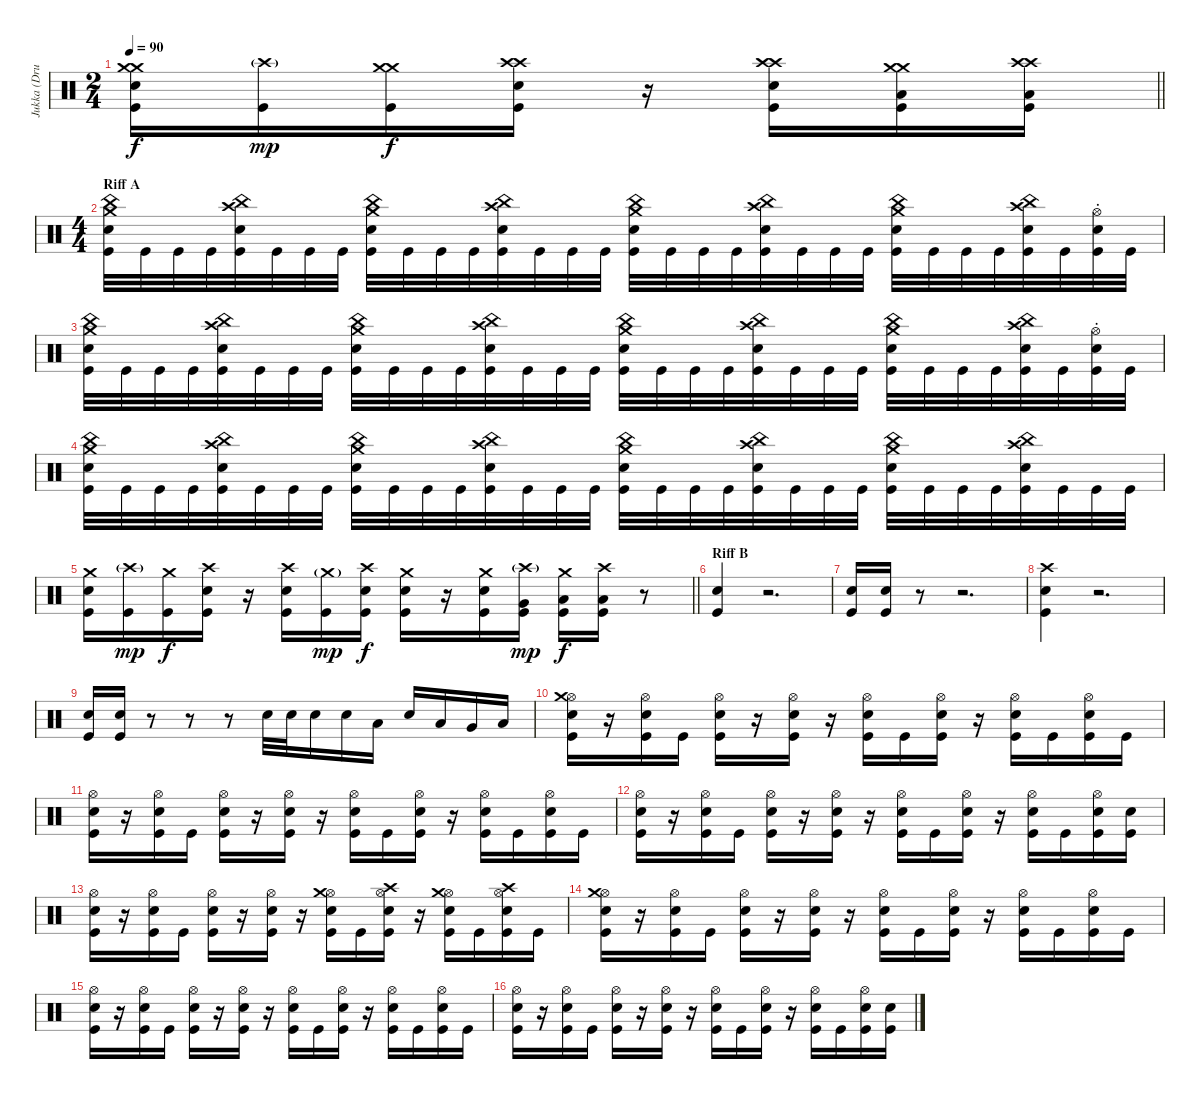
\track ("Jukka (Drums)" "Jukka (Dru") {instrument percussion}
\staff {score}
\articulation defaults
\ts (2 4)
\tempo 90
\clef neutral
\barLineRight lightlight
\ks c
("Crash medium (hit)" "Crash medium (hit)" "Snare (hit) 2" "Kick (hit)").16{dy f} ("Crash high (hit)"{g} "Kick (hit)").16{dy mp} ("Crash medium (hit)" "Crash medium (hit)" "Kick (hit)").16{dy f} ("Crash high (hit)" "Crash high (hit)" "Snare (hit) 2" "Kick (hit)").16 r.16 ("Crash high (hit)" "Crash high (hit)" "Snare (hit) 2" "Kick (hit)").16 ("Crash medium (hit)" "Crash medium (hit)" "Low Floor Tom (hit)" "Kick (hit)").16 ("Crash high (hit)" "Crash high (hit)" "Low Floor Tom (hit)" "Kick (hit)").16 |
\ts (4 4)
\section ("" "Riff A")
("China (hit)" "Crash medium (hit)" "Snare (hit) 2" "Kick (hit)").32 "Kick (hit)".32 "Kick (hit)".32 "Kick (hit)".32 ("China (hit)" "Crash high (hit)" "Snare (hit) 2" "Kick (hit)").32 "Kick (hit)".32 "Kick (hit)".32 "Kick (hit)".32 ("China (hit)" "Crash medium (hit)" "Snare (hit) 2" "Kick (hit)").32 "Kick (hit)".32 "Kick (hit)".32 "Kick (hit)".32 ("China (hit)" "Crash high (hit)" "Snare (hit) 2" "Kick (hit)").32 "Kick (hit)".32 "Kick (hit)".32 "Kick (hit)".32 ("China (hit)" "Crash medium (hit)" "Snare (hit) 2" "Kick (hit)").32 "Kick (hit)".32 "Kick (hit)".32 "Kick (hit)".32 ("China (hit)" "Crash high (hit)" "Snare (hit) 2" "Kick (hit)").32 "Kick (hit)".32 "Kick (hit)".32 "Kick (hit)".32 ("China (hit)" "Crash medium (hit)" "Snare (hit) 2" "Kick (hit)").32 "Kick (hit)".32 "Kick (hit)".32 "Kick (hit)".32 ("China (hit)" "Crash high (hit)" "Snare (hit) 2" "Kick (hit)").32 "Kick (hit)".32 ("Hi-Hat (open)"{st} "Snare (hit) 2" "Kick (hit)").32 "Kick (hit)".32 |
("China (hit)" "Crash medium (hit)" "Snare (hit) 2" "Kick (hit)").32 "Kick (hit)".32 "Kick (hit)".32 "Kick (hit)".32 ("China (hit)" "Crash high (hit)" "Snare (hit) 2" "Kick (hit)").32 "Kick (hit)".32 "Kick (hit)".32 "Kick (hit)".32 ("China (hit)" "Crash medium (hit)" "Snare (hit) 2" "Kick (hit)").32 "Kick (hit)".32 "Kick (hit)".32 "Kick (hit)".32 ("China (hit)" "Crash high (hit)" "Snare (hit) 2" "Kick (hit)").32 "Kick (hit)".32 "Kick (hit)".32 "Kick (hit)".32 ("China (hit)" "Crash medium (hit)" "Snare (hit) 2" "Kick (hit)").32 "Kick (hit)".32 "Kick (hit)".32 "Kick (hit)".32 ("China (hit)" "Crash high (hit)" "Snare (hit) 2" "Kick (hit)").32 "Kick (hit)".32 "Kick (hit)".32 "Kick (hit)".32 ("China (hit)" "Crash medium (hit)" "Snare (hit) 2" "Kick (hit)").32 "Kick (hit)".32 "Kick (hit)".32 "Kick (hit)".32 ("China (hit)" "Crash high (hit)" "Snare (hit) 2" "Kick (hit)").32 "Kick (hit)".32 ("Hi-Hat (open)"{st} "Snare (hit) 2" "Kick (hit)").32 "Kick (hit)".32 |
("China (hit)" "Crash medium (hit)" "Snare (hit) 2" "Kick (hit)").32 "Kick (hit)".32 "Kick (hit)".32 "Kick (hit)".32 ("China (hit)" "Crash high (hit)" "Snare (hit) 2" "Kick (hit)").32 "Kick (hit)".32 "Kick (hit)".32 "Kick (hit)".32 ("China (hit)" "Crash medium (hit)" "Snare (hit) 2" "Kick (hit)").32 "Kick (hit)".32 "Kick (hit)".32 "Kick (hit)".32 ("China (hit)" "Crash high (hit)" "Snare (hit) 2" "Kick (hit)").32 "Kick (hit)".32 "Kick (hit)".32 "Kick (hit)".32 ("China (hit)" "Crash medium (hit)" "Snare (hit) 2" "Kick (hit)").32 "Kick (hit)".32 "Kick (hit)".32 "Kick (hit)".32 ("China (hit)" "Crash high (hit)" "Snare (hit) 2" "Kick (hit)").32 "Kick (hit)".32 "Kick (hit)".32 "Kick (hit)".32 ("China (hit)" "Crash medium (hit)" "Snare (hit) 2" "Kick (hit)").32 "Kick (hit)".32 "Kick (hit)".32 "Kick (hit)".32 ("China (hit)" "Crash high (hit)" "Snare (hit) 2" "Kick (hit)").32 "Kick (hit)".32 "Kick (hit)".32 "Kick (hit)".32 |
\barLineRight lightlight
("Crash medium (hit)" "Snare (hit) 2" "Kick (hit)").16 ("Crash high (hit)"{g} "Kick (hit)").16{dy mp} ("Crash medium (hit)" "Kick (hit)").16{dy f} ("Crash high (hit)" "Snare (hit) 2" "Kick (hit)").16 r.16 ("Crash high (hit)" "Snare (hit) 2" "Kick (hit)").16 ("Crash medium (hit)"{g} "Kick (hit)").16{dy mp} ("Crash high (hit)" "Snare (hit) 2" "Kick (hit)").16{dy f} ("Crash medium (hit)" "Snare (hit) 2" "Kick (hit)").16 r.16 ("Crash medium (hit)" "Snare (hit) 2" "Kick (hit)").16 ("Crash high (hit)"{g} "Very Low Tom (hit)" "Kick (hit)").16{dy mp} ("Crash medium (hit)" "Low Floor Tom (hit)" "Kick (hit)").16{dy f} ("Crash high (hit)" "Low Floor Tom (hit)" "Kick (hit)").16 r.8 |
\section ("" "Riff B")
("Snare (hit) 2" "Kick (hit)").4 r.2{d} |
("Snare (hit) 2" "Kick (hit)").16 ("Snare (hit) 2" "Kick (hit)").16 r.8 r.2{d} |
("Crash high (hit)" "Snare (hit) 2" "Kick (hit)").4 r.2{d} |
("Snare (hit) 2" "Kick (hit)").16 ("Snare (hit) 2" "Kick (hit)").16 r.8 r.8 r.8 "Snare (hit) 2".32{volume 12} "Snare (hit) 2".32 "Snare (hit) 2".16 "Snare (hit) 2".16 "Low Tom (hit)".16 "Snare (hit) 2".16 "Low Tom (hit)".16 "Very Low Tom (hit)".16 "Low Floor Tom (hit)".16 |
("Hi-Hat (open)" "Crash medium (hit)" "Snare (hit) 2" "Kick (hit)").16 r.16 ("Hi-Hat (open)" "Snare (hit) 2" "Kick (hit)").16 "Kick (hit)".16 ("Hi-Hat (open)" "Snare (hit) 2" "Kick (hit)").16 r.16 ("Hi-Hat (open)" "Snare (hit) 2" "Kick (hit)").16 r.16 ("Hi-Hat (open)" "Snare (hit) 2" "Kick (hit)").16 "Kick (hit)".16 ("Hi-Hat (open)" "Snare (hit) 2" "Kick (hit)").16 r.16 ("Hi-Hat (open)" "Snare (hit) 2" "Kick (hit)").16 "Kick (hit)".16 ("Hi-Hat (open)" "Snare (hit) 2" "Kick (hit)").16 "Kick (hit)".16 |
("Hi-Hat (open)" "Snare (hit) 2" "Kick (hit)").16 r.16 ("Hi-Hat (open)" "Snare (hit) 2" "Kick (hit)").16 "Kick (hit)".16 ("Hi-Hat (open)" "Snare (hit) 2" "Kick (hit)").16 r.16 ("Hi-Hat (open)" "Snare (hit) 2" "Kick (hit)").16 r.16 ("Hi-Hat (open)" "Snare (hit) 2" "Kick (hit)").16 "Kick (hit)".16 ("Hi-Hat (open)" "Snare (hit) 2" "Kick (hit)").16 r.16 ("Hi-Hat (open)" "Snare (hit) 2" "Kick (hit)").16 "Kick (hit)".16 ("Hi-Hat (open)" "Snare (hit) 2" "Kick (hit)").16 "Kick (hit)".16 |
("Hi-Hat (open)" "Snare (hit) 2" "Kick (hit)").16 r.16 ("Hi-Hat (open)" "Snare (hit) 2" "Kick (hit)").16 "Kick (hit)".16 ("Hi-Hat (open)" "Snare (hit) 2" "Kick (hit)").16 r.16 ("Hi-Hat (open)" "Snare (hit) 2" "Kick (hit)").16 r.16 ("Hi-Hat (open)" "Snare (hit) 2" "Kick (hit)").16 "Kick (hit)".16 ("Hi-Hat (open)" "Snare (hit) 2" "Kick (hit)").16 r.16 ("Hi-Hat (open)" "Snare (hit) 2" "Kick (hit)").16 "Kick (hit)".16 ("Hi-Hat (open)" "Snare (hit) 2" "Kick (hit)").16 ("Snare (hit) 2" "Kick (hit)").16 |
("Hi-Hat (open)" "Snare (hit) 2" "Kick (hit)").16 r.16 ("Hi-Hat (open)" "Snare (hit) 2" "Kick (hit)").16 "Kick (hit)".16 ("Hi-Hat (open)" "Snare (hit) 2" "Kick (hit)").16 r.16 ("Hi-Hat (open)" "Snare (hit) 2" "Kick (hit)").16 r.16 ("Hi-Hat (open)" "Crash medium (hit)" "Snare (hit) 2" "Kick (hit)").16 "Kick (hit)".16 ("Hi-Hat (open)" "Crash high (hit)" "Snare (hit) 2" "Kick (hit)").16 r.16 ("Hi-Hat (open)" "Crash medium (hit)" "Snare (hit) 2" "Kick (hit)").16 "Kick (hit)".16 ("Hi-Hat (open)" "Crash high (hit)" "Snare (hit) 2" "Kick (hit)").16 "Kick (hit)".16 |
("Hi-Hat (open)" "Crash medium (hit)" "Snare (hit) 2" "Kick (hit)").16 r.16 ("Hi-Hat (open)" "Snare (hit) 2" "Kick (hit)").16 "Kick (hit)".16 ("Hi-Hat (open)" "Snare (hit) 2" "Kick (hit)").16 r.16 ("Hi-Hat (open)" "Snare (hit) 2" "Kick (hit)").16 r.16 ("Hi-Hat (open)" "Snare (hit) 2" "Kick (hit)").16 "Kick (hit)".16 ("Hi-Hat (open)" "Snare (hit) 2" "Kick (hit)").16 r.16 ("Hi-Hat (open)" "Snare (hit) 2" "Kick (hit)").16 "Kick (hit)".16 ("Hi-Hat (open)" "Snare (hit) 2" "Kick (hit)").16 "Kick (hit)".16 |
("Hi-Hat (open)" "Snare (hit) 2" "Kick (hit)").16 r.16 ("Hi-Hat (open)" "Snare (hit) 2" "Kick (hit)").16 "Kick (hit)".16 ("Hi-Hat (open)" "Snare (hit) 2" "Kick (hit)").16 r.16 ("Hi-Hat (open)" "Snare (hit) 2" "Kick (hit)").16 r.16 ("Hi-Hat (open)" "Snare (hit) 2" "Kick (hit)").16 "Kick (hit)".16 ("Hi-Hat (open)" "Snare (hit) 2" "Kick (hit)").16 r.16 ("Hi-Hat (open)" "Snare (hit) 2" "Kick (hit)").16 "Kick (hit)".16 ("Hi-Hat (open)" "Snare (hit) 2" "Kick (hit)").16 "Kick (hit)".16 |
("Hi-Hat (open)" "Snare (hit) 2" "Kick (hit)").16 r.16 ("Hi-Hat (open)" "Snare (hit) 2" "Kick (hit)").16 "Kick (hit)".16 ("Hi-Hat (open)" "Snare (hit) 2" "Kick (hit)").16 r.16 ("Hi-Hat (open)" "Snare (hit) 2" "Kick (hit)").16 r.16 ("Hi-Hat (open)" "Snare (hit) 2" "Kick (hit)").16 "Kick (hit)".16 ("Hi-Hat (open)" "Snare (hit) 2" "Kick (hit)").16 r.16 ("Hi-Hat (open)" "Snare (hit) 2" "Kick (hit)").16 "Kick (hit)".16 ("Hi-Hat (open)" "Snare (hit) 2" "Kick (hit)").16 ("Snare (hit) 2" "Kick (hit)").16
